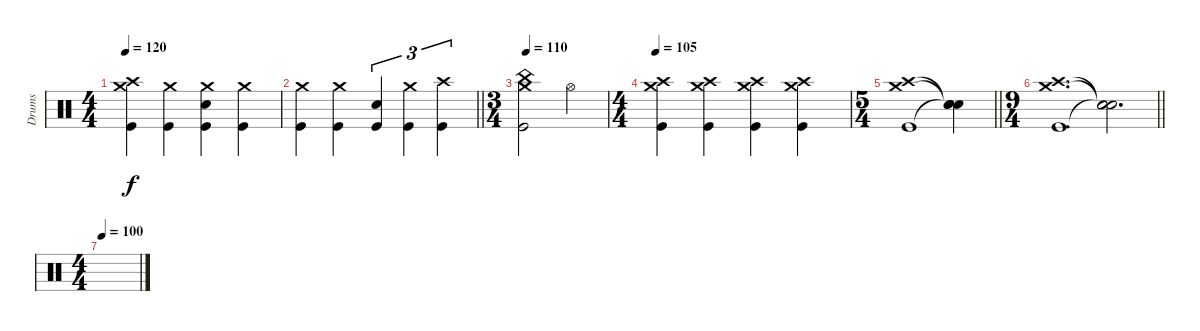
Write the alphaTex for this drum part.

\track ("Drums" "Drums") {instrument percussion}
\staff
\articulation defaults
\ts (4 4)
\tempo 120
\clef neutral
\ks c
("Crash medium (hit)" "Crash high (hit)" "Kick (hit)").4{dy f} ("Crash medium (hit)" "Kick (hit)").4 ("Crash medium (hit)" "Electric Snare (hit)" "Kick (hit)").4 ("Crash medium (hit)" "Kick (hit)").4 |
\barLineRight lightlight
("Crash medium (hit)" "Kick (hit)").4 ("Crash medium (hit)" "Kick (hit)").4 ("Electric Snare (hit)" "Kick (hit)").4{tu (3 2)} ("Crash medium (hit)" "Kick (hit)").4{tu (3 2)} ("Crash high (hit)" "Kick (hit)").4{tu (3 2)} |
\ts (3 4)
\tempo 110
("Crash medium (hit)" "China (hit)" "Kick (hit)").2 "Hi-Hat (open)".4 |
\ts (4 4)
\tempo 105
("Crash medium (hit)" "Crash high (hit)" "Kick (hit)").4 ("Crash medium (hit)" "Crash high (hit)" "Kick (hit)").4 ("Crash medium (hit)" "Crash high (hit)" "Kick (hit)").4 ("Crash medium (hit)" "Crash high (hit)" "Kick (hit)").4 |
\ts (5 4)
\barLineRight lightlight
("Crash medium (hit)" "Crash high (hit)" "Kick (hit)").1 ("Snare (hit)"{t} "Snare (hit)"{t} "Snare (hit)"{t}).4 |
\ts (9 4)
\barLineRight lightlight
("Crash medium (hit)" "Crash high (hit)" "Kick (hit)").1{d} ("Snare (hit)"{t} "Snare (hit)"{t} "Snare (hit)"{t}).2{d} |
\ts (4 4)
\tempo 100
